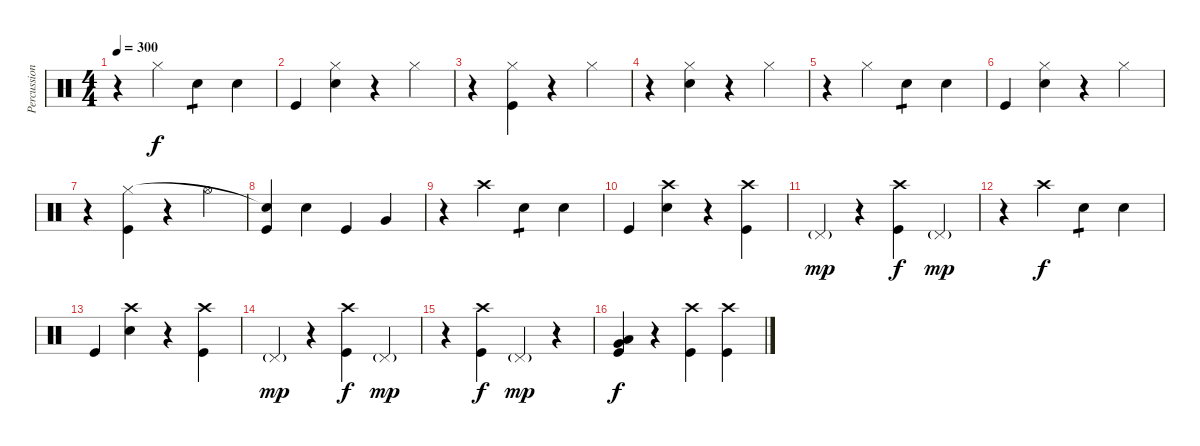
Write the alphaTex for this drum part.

\track ("Percussion" "Percussion") {instrument percussion}
\staff {score}
\articulation defaults
\ts (4 4)
\tempo 300
\clef neutral
\ks c
r.4{dy f} "Hi-Hat (closed)".4 "Electric Snare (hit)".4{tp 1} "Electric Snare (hit)".4 |
"Kick (hit)".4 ("Electric Snare (hit)" "Hi-Hat (closed)").4 r.4 "Hi-Hat (closed)".4 |
r.4 ("Kick (hit)" "Hi-Hat (closed)").4 r.4 "Hi-Hat (closed)".4 |
r.4 ("Electric Snare (hit)" "Hi-Hat (closed)").4 r.4 "Hi-Hat (closed)".4 |
r.4 "Hi-Hat (closed)".4 "Electric Snare (hit)".4{tp 1} "Electric Snare (hit)".4 |
"Kick (hit)".4 ("Electric Snare (hit)" "Hi-Hat (closed)").4 r.4 "Hi-Hat (closed)".4 |
r.4 ("Kick (hit)" "Hi-Hat (closed)").4 r.4 "Hi-Hat (open)".4 |
("Kick (hit)" "Electric Snare (hit)"{t}).4 "Electric Snare (hit)".4 "Kick (hit)".4 "Very Low Tom (hit)".4 |
r.4 "Crash high (hit)".4 "Electric Snare (hit)".4{tp 1} "Electric Snare (hit)".4 |
"Kick (hit)".4 ("Electric Snare (hit)" "Crash high (hit)").4 r.4 ("Kick (hit)" "Crash high (hit)").4 |
"Pedal Hi-Hat (hit)"{g}.4{dy mp} r.4 ("Kick (hit)" "Crash high (hit)").4{dy f} "Pedal Hi-Hat (hit)"{g}.4{dy mp} |
r.4 "Crash high (hit)".4{dy f} "Electric Snare (hit)".4{tp 1} "Electric Snare (hit)".4 |
"Kick (hit)".4 ("Electric Snare (hit)" "Crash high (hit)").4 r.4 ("Kick (hit)" "Crash high (hit)").4 |
"Pedal Hi-Hat (hit)"{g}.4{dy mp} r.4 ("Kick (hit)" "Crash high (hit)").4{dy f} "Pedal Hi-Hat (hit)"{g}.4{dy mp} |
r.4 ("Kick (hit)" "Crash high (hit)").4{dy f} "Pedal Hi-Hat (hit)"{g}.4{dy mp} r.4 |
("Kick (hit)" "Low Floor Tom (hit)" "Very Low Tom (hit)").4{dy f} r.4 ("Kick (hit)" "Crash high (hit)").4 ("Kick (hit)" "Crash high (hit)").4
